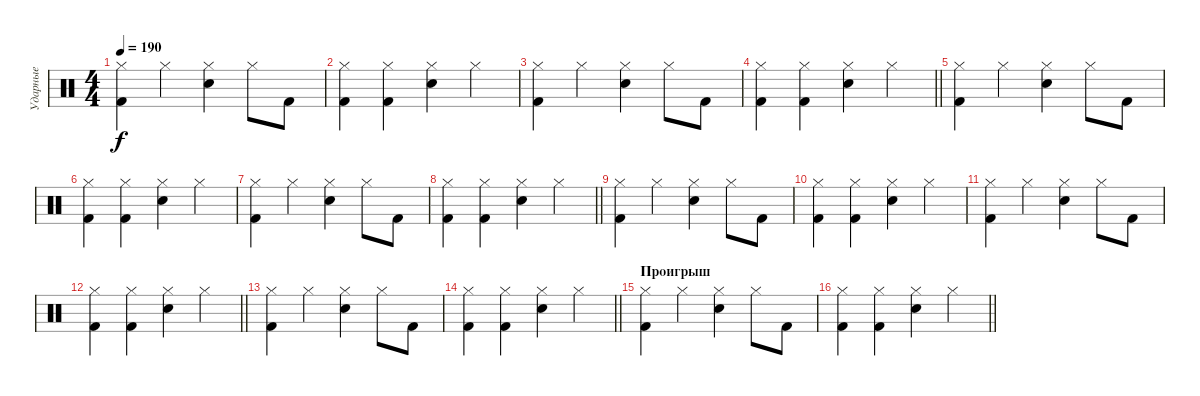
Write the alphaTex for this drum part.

\track ("Ударные" "Ударные") {instrument percussion}
\staff {score}
\articulation defaults
\ts (4 4)
\tempo 190
\clef neutral
\ks c
("Kick (hit) 2" "Hi-Hat (closed)").4{dy f} "Hi-Hat (closed)".4 ("Hand Clap (hit)" "Hi-Hat (closed)").4 "Hi-Hat (closed)".8 "Kick (hit) 2".8 |
("Kick (hit) 2" "Hi-Hat (closed)").4 ("Kick (hit) 2" "Hi-Hat (closed)").4 ("Hand Clap (hit)" "Hi-Hat (closed)").4 "Hi-Hat (closed)".4 |
("Kick (hit) 2" "Hi-Hat (closed)").4 "Hi-Hat (closed)".4 ("Hand Clap (hit)" "Hi-Hat (closed)").4 "Hi-Hat (closed)".8 "Kick (hit) 2".8 |
\barLineRight lightlight
("Kick (hit) 2" "Hi-Hat (closed)").4 ("Kick (hit) 2" "Hi-Hat (closed)").4 ("Hand Clap (hit)" "Hi-Hat (closed)").4 "Hi-Hat (closed)".4 |
("Kick (hit) 2" "Hi-Hat (closed)").4 "Hi-Hat (closed)".4 ("Hand Clap (hit)" "Hi-Hat (closed)").4 "Hi-Hat (closed)".8 "Kick (hit) 2".8 |
("Kick (hit) 2" "Hi-Hat (closed)").4 ("Kick (hit) 2" "Hi-Hat (closed)").4 ("Hand Clap (hit)" "Hi-Hat (closed)").4 "Hi-Hat (closed)".4 |
("Kick (hit) 2" "Hi-Hat (closed)").4 "Hi-Hat (closed)".4 ("Hand Clap (hit)" "Hi-Hat (closed)").4 "Hi-Hat (closed)".8 "Kick (hit) 2".8 |
\barLineRight lightlight
("Kick (hit) 2" "Hi-Hat (closed)").4 ("Kick (hit) 2" "Hi-Hat (closed)").4 ("Hand Clap (hit)" "Hi-Hat (closed)").4 "Hi-Hat (closed)".4 |
("Kick (hit) 2" "Hi-Hat (closed)").4 "Hi-Hat (closed)".4 ("Hand Clap (hit)" "Hi-Hat (closed)").4 "Hi-Hat (closed)".8 "Kick (hit) 2".8 |
("Kick (hit) 2" "Hi-Hat (closed)").4 ("Kick (hit) 2" "Hi-Hat (closed)").4 ("Hand Clap (hit)" "Hi-Hat (closed)").4 "Hi-Hat (closed)".4 |
("Kick (hit) 2" "Hi-Hat (closed)").4 "Hi-Hat (closed)".4 ("Hand Clap (hit)" "Hi-Hat (closed)").4 "Hi-Hat (closed)".8 "Kick (hit) 2".8 |
\barLineRight lightlight
("Kick (hit) 2" "Hi-Hat (closed)").4 ("Kick (hit) 2" "Hi-Hat (closed)").4 ("Hand Clap (hit)" "Hi-Hat (closed)").4 "Hi-Hat (closed)".4 |
("Kick (hit) 2" "Hi-Hat (closed)").4 "Hi-Hat (closed)".4 ("Hand Clap (hit)" "Hi-Hat (closed)").4 "Hi-Hat (closed)".8 "Kick (hit) 2".8 |
\barLineRight lightlight
("Kick (hit) 2" "Hi-Hat (closed)").4 ("Kick (hit) 2" "Hi-Hat (closed)").4 ("Hand Clap (hit)" "Hi-Hat (closed)").4 "Hi-Hat (closed)".4 |
\section ("" "Проигрыш")
("Kick (hit) 2" "Hi-Hat (closed)").4 "Hi-Hat (closed)".4 ("Hand Clap (hit)" "Hi-Hat (closed)").4 "Hi-Hat (closed)".8 "Kick (hit) 2".8 |
\barLineRight lightlight
("Kick (hit) 2" "Hi-Hat (closed)").4 ("Kick (hit) 2" "Hi-Hat (closed)").4 ("Hand Clap (hit)" "Hi-Hat (closed)").4 "Hi-Hat (closed)".4
